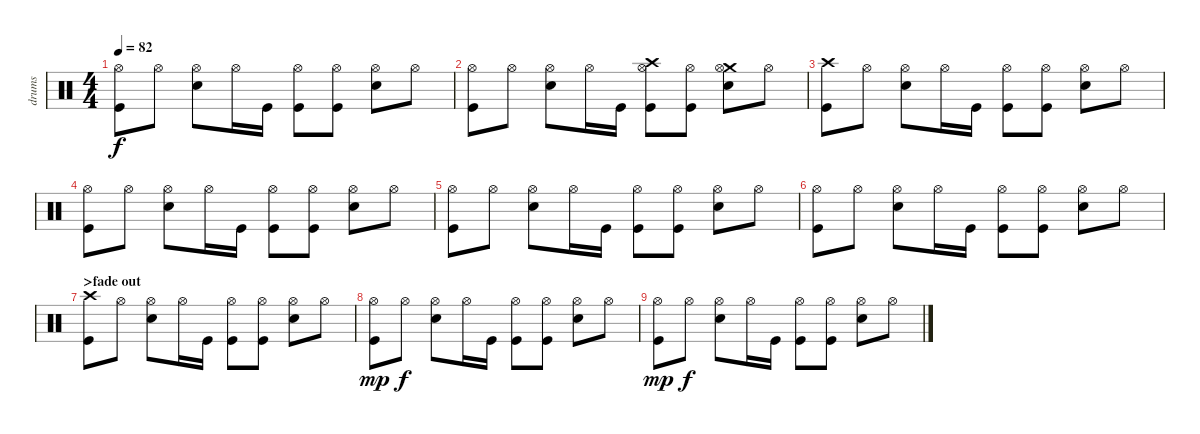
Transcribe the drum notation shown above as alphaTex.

\track ("drums" "drums") {instrument percussion}
\staff {score}
\articulation defaults
\ts (4 4)
\tempo 82
\clef neutral
\ks c
("Hi-Hat (open)" "Kick (hit)").8{dy f} "Hi-Hat (open)".8 ("Hi-Hat (open)" "Snare (hit) 2").8 "Hi-Hat (open)".16 "Kick (hit)".16 ("Hi-Hat (open)" "Kick (hit)").8 ("Hi-Hat (open)" "Kick (hit)").8 ("Hi-Hat (open)" "Snare (hit) 2").8 "Hi-Hat (open)".8 |
("Hi-Hat (open)" "Kick (hit)").8 "Hi-Hat (open)".8 ("Hi-Hat (open)" "Snare (hit) 2").8 "Hi-Hat (open)".16 "Kick (hit)".16 ("Crash high (hit)" "Hi-Hat (open)" "Kick (hit)").8 ("Hi-Hat (open)" "Kick (hit)").8 ("Crash medium (hit)" "Hi-Hat (open)" "Snare (hit) 2").8 "Hi-Hat (open)".8 |
("Crash high (hit)" "Kick (hit)").8 "Hi-Hat (open)".8 ("Hi-Hat (open)" "Snare (hit) 2").8 "Hi-Hat (open)".16 "Kick (hit)".16 ("Hi-Hat (open)" "Kick (hit)").8 ("Hi-Hat (open)" "Kick (hit)").8 ("Hi-Hat (open)" "Snare (hit) 2").8 "Hi-Hat (open)".8 |
("Hi-Hat (open)" "Kick (hit)").8 "Hi-Hat (open)".8 ("Hi-Hat (open)" "Snare (hit) 2").8 "Hi-Hat (open)".16 "Kick (hit)".16 ("Hi-Hat (open)" "Kick (hit)").8 ("Hi-Hat (open)" "Kick (hit)").8 ("Hi-Hat (open)" "Snare (hit) 2").8 "Hi-Hat (open)".8 |
("Hi-Hat (open)" "Kick (hit)").8 "Hi-Hat (open)".8 ("Hi-Hat (open)" "Snare (hit) 2").8 "Hi-Hat (open)".16 "Kick (hit)".16 ("Hi-Hat (open)" "Kick (hit)").8 ("Hi-Hat (open)" "Kick (hit)").8 ("Hi-Hat (open)" "Snare (hit) 2").8 "Hi-Hat (open)".8 |
("Hi-Hat (open)" "Kick (hit)").8 "Hi-Hat (open)".8 ("Hi-Hat (open)" "Snare (hit) 2").8 "Hi-Hat (open)".16 "Kick (hit)".16 ("Hi-Hat (open)" "Kick (hit)").8 ("Hi-Hat (open)" "Kick (hit)").8 ("Hi-Hat (open)" "Snare (hit) 2").8 "Hi-Hat (open)".8 |
\section ("" ">fade out")
("Crash high (hit)" "Kick (hit)").8{volume 10} "Hi-Hat (open)".8 ("Hi-Hat (open)" "Snare (hit) 2").8 "Hi-Hat (open)".16 "Kick (hit)".16 ("Hi-Hat (open)" "Kick (hit)").8 ("Hi-Hat (open)" "Kick (hit)").8 ("Hi-Hat (open)" "Snare (hit) 2").8 "Hi-Hat (open)".8 |
("Hi-Hat (open)" "Kick (hit)").8{dy mp volume 8} "Hi-Hat (open)".8{dy f} ("Hi-Hat (open)" "Snare (hit) 2").8 "Hi-Hat (open)".16 "Kick (hit)".16 ("Hi-Hat (open)" "Kick (hit)").8 ("Hi-Hat (open)" "Kick (hit)").8 ("Hi-Hat (open)" "Snare (hit) 2").8 "Hi-Hat (open)".8 |
("Hi-Hat (open)" "Kick (hit)").8{dy mp volume 6} "Hi-Hat (open)".8{dy f} ("Hi-Hat (open)" "Snare (hit) 2").8 "Hi-Hat (open)".16 "Kick (hit)".16 ("Hi-Hat (open)" "Kick (hit)").8 ("Hi-Hat (open)" "Kick (hit)").8 ("Hi-Hat (open)" "Snare (hit) 2").8 "Hi-Hat (open)".8
